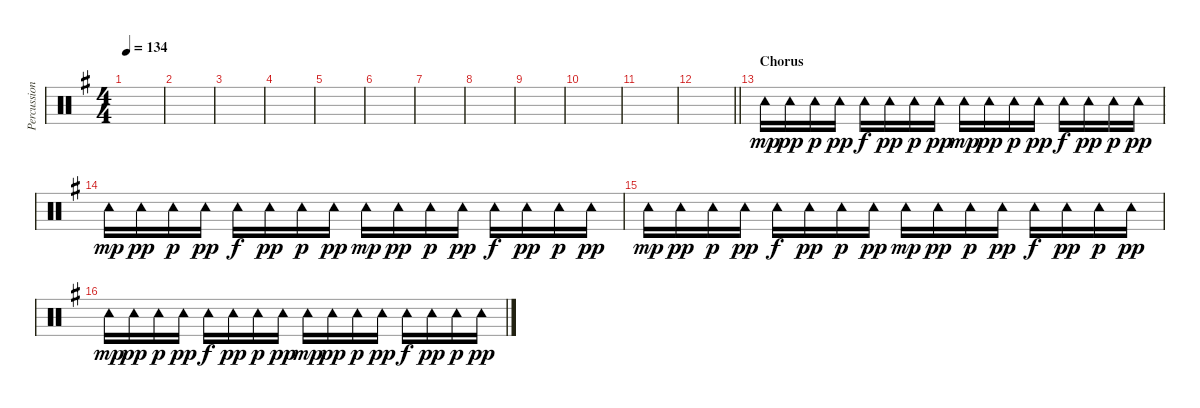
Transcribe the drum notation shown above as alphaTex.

\track ("Percussion" "Percussion") {instrument percussion}
\staff {score}
\articulation defaults
\ts (4 4)
\tempo 134
\clef neutral
\ks eminor
|
|
|
|
|
|
|
|
|
|
|
\barLineRight lightlight
|
\section ("" "Chorus")
"Tambourine (hit)".16{dy mp} "Tambourine (hit)".16{dy pp} "Tambourine (hit)".16{dy p} "Tambourine (hit)".16{dy pp} "Tambourine (hit)".16{dy f} "Tambourine (hit)".16{dy pp} "Tambourine (hit)".16{dy p} "Tambourine (hit)".16{dy pp} "Tambourine (hit)".16{dy mp} "Tambourine (hit)".16{dy pp} "Tambourine (hit)".16{dy p} "Tambourine (hit)".16{dy pp} "Tambourine (hit)".16{dy f} "Tambourine (hit)".16{dy pp} "Tambourine (hit)".16{dy p} "Tambourine (hit)".16{dy pp} |
"Tambourine (hit)".16{dy mp} "Tambourine (hit)".16{dy pp} "Tambourine (hit)".16{dy p} "Tambourine (hit)".16{dy pp} "Tambourine (hit)".16{dy f} "Tambourine (hit)".16{dy pp} "Tambourine (hit)".16{dy p} "Tambourine (hit)".16{dy pp} "Tambourine (hit)".16{dy mp} "Tambourine (hit)".16{dy pp} "Tambourine (hit)".16{dy p} "Tambourine (hit)".16{dy pp} "Tambourine (hit)".16{dy f} "Tambourine (hit)".16{dy pp} "Tambourine (hit)".16{dy p} "Tambourine (hit)".16{dy pp} |
"Tambourine (hit)".16{dy mp} "Tambourine (hit)".16{dy pp} "Tambourine (hit)".16{dy p} "Tambourine (hit)".16{dy pp} "Tambourine (hit)".16{dy f} "Tambourine (hit)".16{dy pp} "Tambourine (hit)".16{dy p} "Tambourine (hit)".16{dy pp} "Tambourine (hit)".16{dy mp} "Tambourine (hit)".16{dy pp} "Tambourine (hit)".16{dy p} "Tambourine (hit)".16{dy pp} "Tambourine (hit)".16{dy f} "Tambourine (hit)".16{dy pp} "Tambourine (hit)".16{dy p} "Tambourine (hit)".16{dy pp} |
"Tambourine (hit)".16{dy mp} "Tambourine (hit)".16{dy pp} "Tambourine (hit)".16{dy p} "Tambourine (hit)".16{dy pp} "Tambourine (hit)".16{dy f} "Tambourine (hit)".16{dy pp} "Tambourine (hit)".16{dy p} "Tambourine (hit)".16{dy pp} "Tambourine (hit)".16{dy mp} "Tambourine (hit)".16{dy pp} "Tambourine (hit)".16{dy p} "Tambourine (hit)".16{dy pp} "Tambourine (hit)".16{dy f} "Tambourine (hit)".16{dy pp} "Tambourine (hit)".16{dy p} "Tambourine (hit)".16{dy pp}
